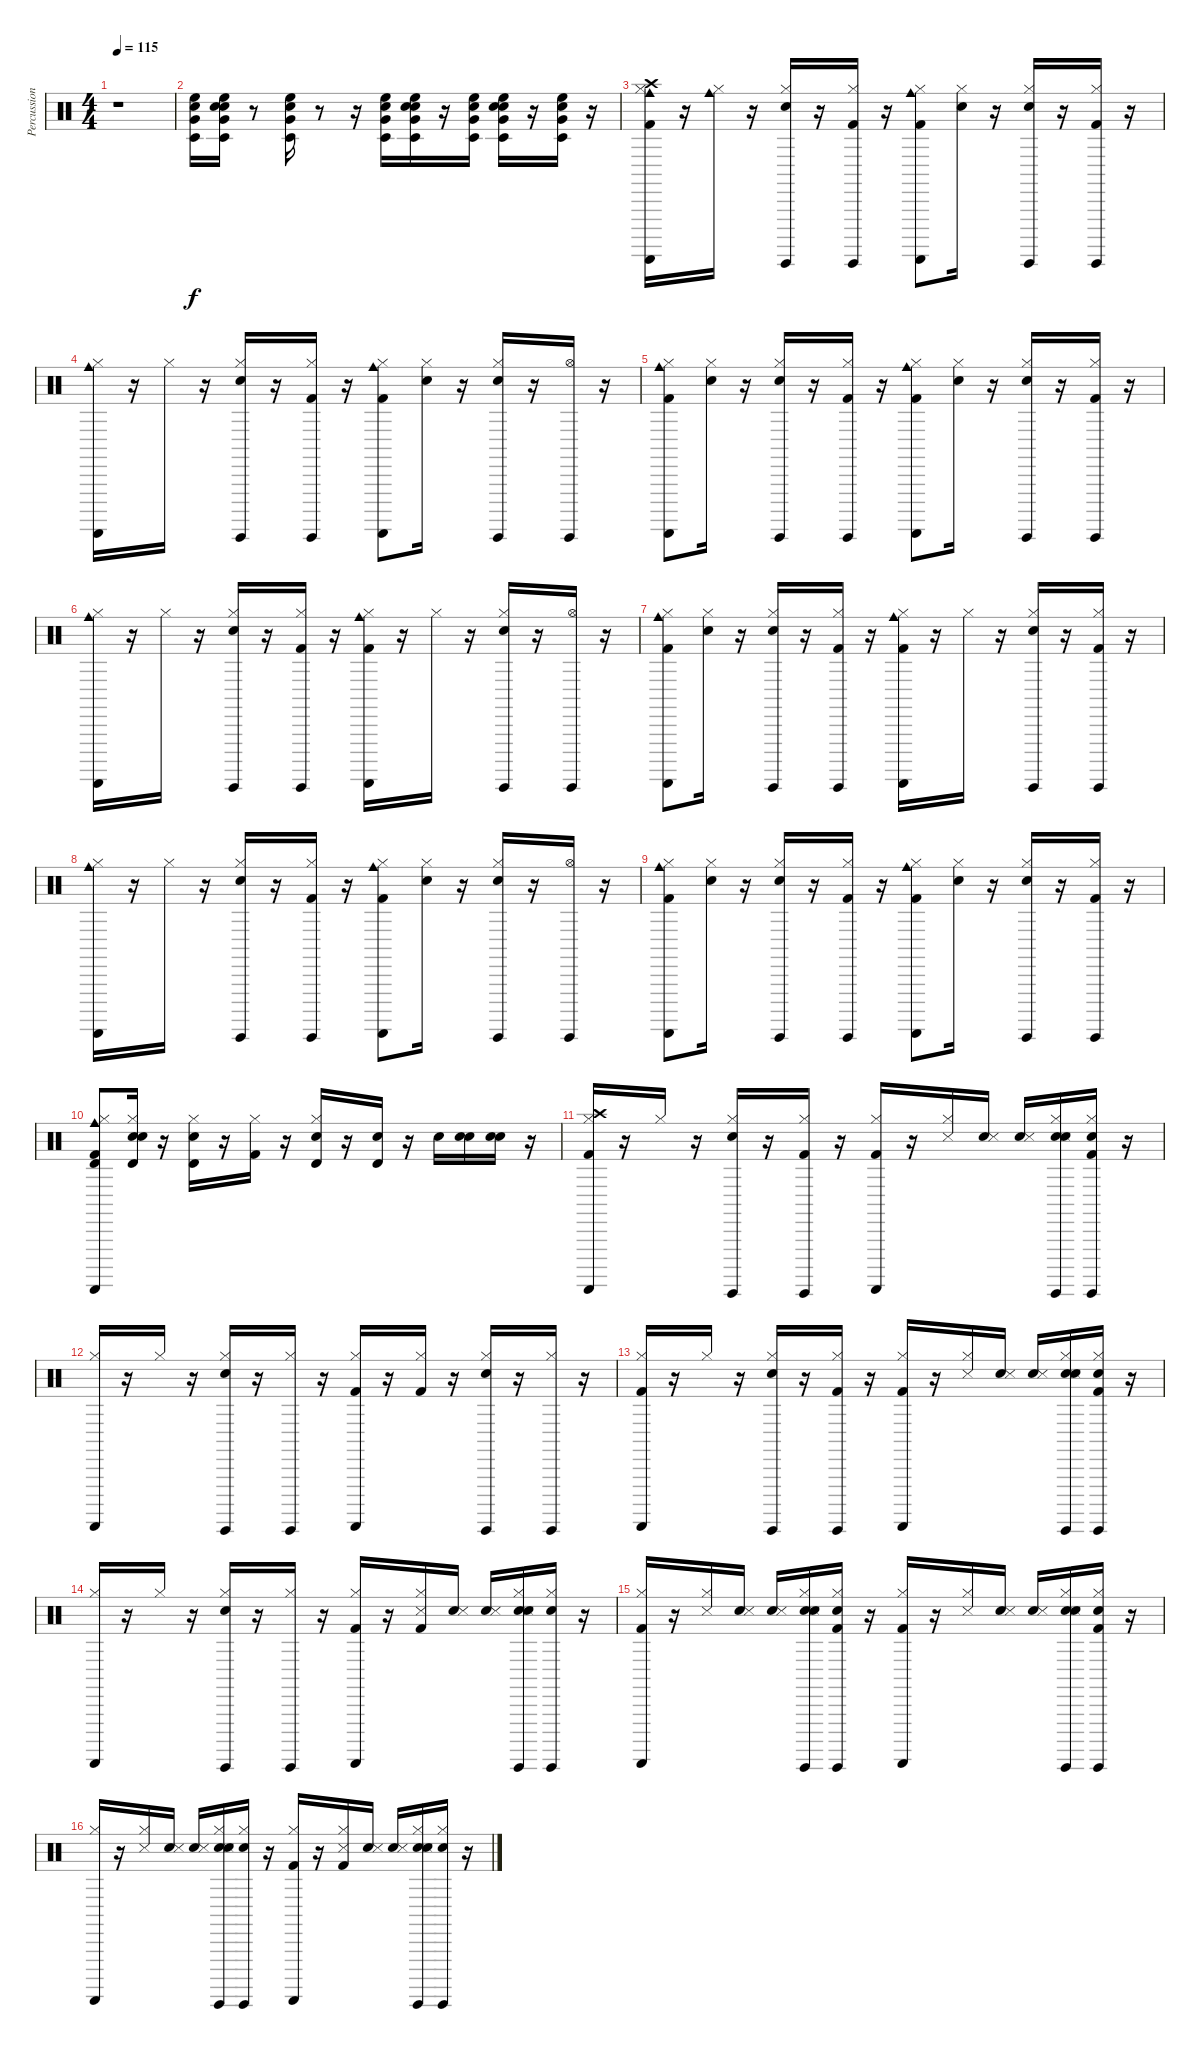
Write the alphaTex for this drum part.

\track ("Percussion" "Percussion") {instrument percussion}
\staff {score}
\articulation defaults
\ts (4 4)
\tempo 115
\clef neutral
\ks c
r.1{dy f} |
("Very Low Tom (hit)" "Timbale low (hit)" "Electric Snare (hit)" "High Floor Tom (hit)").16 ("Snare (hit)" "Very Low Tom (hit)" "Timbale low (hit)" "Electric Snare (hit)" "High Floor Tom (hit)").16 r.8 ("Very Low Tom (hit)" "Timbale low (hit)" "High Floor Tom (hit)" "Electric Snare (hit)").16 r.8 r.16 ("Very Low Tom (hit)" "Electric Snare (hit)" "Timbale low (hit)" "High Floor Tom (hit)").16 ("Snare (hit)" "Timbale low (hit)" "Electric Snare (hit)" "High Floor Tom (hit)" "Very Low Tom (hit)").16 r.16 ("High Floor Tom (hit)" "Timbale low (hit)" "Electric Snare (hit)" "Very Low Tom (hit)").16 ("Snare (hit)" "Very Low Tom (hit)" "High Floor Tom (hit)" "Electric Snare (hit)" "Timbale low (hit)").16 r.16 ("Very Low Tom (hit)" "Electric Snare (hit)" "High Floor Tom (hit)" "Timbale low (hit)").16 r.16 |
("Kick (hit) 2" "Hi-Hat (closed)" "Crash high (hit)" "Guiro (scrap-return)" "Cowbell medium (hit)").16 r.16 ("Cowbell medium (hit)" "Hi-Hat (closed)").16 r.16 ("Guiro (hit)" "Snare (hit) 2" "Hi-Hat (closed)").16 r.16 ("Hi-Hat (closed)" "Kick (hit) 2" "Guiro (hit)").16 r.16 ("Guiro (scrap-return)" "Kick (hit) 2" "Hi-Hat (closed)" "Cowbell medium (hit)").8 ("Snare (hit)" "Hi-Hat (closed)").16 r.16 ("Hi-Hat (closed)" "Guiro (hit)" "Snare (hit) 2").16 r.16 ("Kick (hit) 2" "Guiro (hit)" "Hi-Hat (closed)").16 r.16 |
("Cowbell medium (hit)" "Guiro (scrap-return)" "Hi-Hat (closed)").16 r.16 "Hi-Hat (closed)".16 r.16 ("Guiro (hit)" "Snare (hit) 2" "Hi-Hat (closed)").16 r.16 ("Hi-Hat (closed)" "Kick (hit) 2" "Guiro (hit)").16 r.16 ("Guiro (scrap-return)" "Kick (hit) 2" "Hi-Hat (closed)" "Cowbell medium (hit)").8 ("Snare (hit)" "Hi-Hat (closed)").16 r.16 ("Guiro (hit)" "Snare (hit) 2" "Hi-Hat (closed)").16 r.16 ("Hi-Hat (open)" "Guiro (hit)").16 r.16 |
("Guiro (scrap-return)" "Kick (hit) 2" "Hi-Hat (closed)" "Cowbell medium (hit)").8 ("Snare (hit)" "Hi-Hat (closed)").16 r.16 ("Guiro (hit)" "Snare (hit) 2" "Hi-Hat (closed)").16 r.16 ("Hi-Hat (closed)" "Kick (hit) 2" "Guiro (hit)").16 r.16 ("Guiro (scrap-return)" "Kick (hit) 2" "Hi-Hat (closed)" "Cowbell medium (hit)").8 ("Snare (hit)" "Hi-Hat (closed)").16 r.16 ("Guiro (hit)" "Snare (hit) 2" "Hi-Hat (closed)").16 r.16 ("Guiro (hit)" "Hi-Hat (closed)" "Kick (hit) 2").16 r.16 |
("Guiro (scrap-return)" "Hi-Hat (closed)" "Cowbell medium (hit)").16 r.16 "Hi-Hat (closed)".16 r.16 ("Guiro (hit)" "Snare (hit) 2" "Hi-Hat (closed)").16 r.16 ("Hi-Hat (closed)" "Kick (hit) 2" "Guiro (hit)").16 r.16 ("Cowbell medium (hit)" "Guiro (scrap-return)" "Kick (hit) 2" "Hi-Hat (closed)").16 r.16 "Hi-Hat (closed)".16 r.16 ("Guiro (hit)" "Snare (hit) 2" "Hi-Hat (closed)").16 r.16 ("Hi-Hat (open)" "Guiro (hit)").16 r.16 |
("Guiro (scrap-return)" "Kick (hit) 2" "Hi-Hat (closed)" "Cowbell medium (hit)").8 ("Snare (hit)" "Hi-Hat (closed)").16 r.16 ("Guiro (hit)" "Snare (hit) 2" "Hi-Hat (closed)").16 r.16 ("Hi-Hat (closed)" "Kick (hit) 2" "Guiro (hit)").16 r.16 ("Cowbell medium (hit)" "Guiro (scrap-return)" "Kick (hit) 2" "Hi-Hat (closed)").16 r.16 "Hi-Hat (closed)".16 r.16 ("Guiro (hit)" "Snare (hit) 2" "Hi-Hat (closed)").16 r.16 ("Guiro (hit)" "Hi-Hat (closed)" "Kick (hit) 2").16 r.16 |
("Cowbell medium (hit)" "Guiro (scrap-return)" "Hi-Hat (closed)").16 r.16 "Hi-Hat (closed)".16 r.16 ("Guiro (hit)" "Snare (hit) 2" "Hi-Hat (closed)").16 r.16 ("Hi-Hat (closed)" "Kick (hit) 2" "Guiro (hit)").16 r.16 ("Guiro (scrap-return)" "Kick (hit) 2" "Hi-Hat (closed)" "Cowbell medium (hit)").8 ("Snare (hit)" "Hi-Hat (closed)").16 r.16 ("Guiro (hit)" "Snare (hit) 2" "Hi-Hat (closed)").16 r.16 ("Hi-Hat (open)" "Guiro (hit)").16 r.16 |
("Guiro (scrap-return)" "Kick (hit) 2" "Hi-Hat (closed)" "Cowbell medium (hit)").8 ("Snare (hit)" "Hi-Hat (closed)").16 r.16 ("Guiro (hit)" "Snare (hit) 2" "Hi-Hat (closed)").16 r.16 ("Hi-Hat (closed)" "Kick (hit) 2" "Guiro (hit)").16 r.16 ("Guiro (scrap-return)" "Kick (hit) 2" "Hi-Hat (closed)" "Cowbell medium (hit)").8 ("Snare (hit)" "Hi-Hat (closed)").16 r.16 ("Guiro (hit)" "Snare (hit) 2" "Hi-Hat (closed)").16 r.16 ("Guiro (hit)" "Hi-Hat (closed)" "Kick (hit) 2").16 r.16 |
("Hi-Hat (closed)" "Guiro (scrap-return)" "Kick (hit) 2" "Timbale high (hit)" "Cowbell medium (hit)").8 ("Snare (hit)" "Hi-Hat (closed)" "Electric Snare (hit)" "Timbale high (hit)").16 r.16 ("Hi-Hat (closed)" "Electric Snare (hit)" "Timbale high (hit)").16 r.16 ("Hi-Hat (closed)" "Kick (hit) 2").16 r.16 ("Hi-Hat (closed)" "Timbale high (hit)" "Electric Snare (hit)").16 r.16 ("Electric Snare (hit)" "Timbale high (hit)").16 r.16 "Electric Snare (hit)".16 ("Snare (hit)" "Electric Snare (hit)").16 ("Snare (hit)" "Electric Snare (hit)").16 r.16 |
("Guiro (scrap-return)" "Hi-Hat (closed)" "Crash high (hit)" "Kick (hit) 2").16 r.16 "Hi-Hat (closed)".16 r.16 ("Guiro (hit)" "Hi-Hat (closed)" "Snare (hit) 2").16 r.16 ("Guiro (hit)" "Hi-Hat (closed)" "Kick (hit) 2").16 r.16 ("Guiro (scrap-return)" "Hi-Hat (closed)" "Kick (hit) 2").16 r.16 ("Hi-Hat (closed)" "Snare (side stick) 3").16 ("Snare (hit)" "Snare (side stick) 3").16 ("Snare (hit)" "Snare (side stick) 3").16 ("Snare (hit)" "Snare (side stick) 3" "Guiro (hit)" "Hi-Hat (closed)" "Snare (hit) 2").16 ("Snare (hit)" "Guiro (hit)" "Hi-Hat (closed)" "Kick (hit) 2").16 r.16 |
("Guiro (scrap-return)" "Hi-Hat (closed)").16 r.16 "Hi-Hat (closed)".16 r.16 ("Snare (hit) 2" "Guiro (hit)" "Hi-Hat (closed)").16 r.16 ("Guiro (hit)" "Hi-Hat (closed)").16 r.16 ("Guiro (scrap-return)" "Hi-Hat (closed)" "Kick (hit) 2").16 r.16 ("Hi-Hat (closed)" "Kick (hit) 2").16 r.16 ("Guiro (hit)" "Hi-Hat (closed)" "Snare (hit) 2").16 r.16 ("Guiro (hit)" "Hi-Hat (closed)").16 r.16 |
("Guiro (scrap-return)" "Hi-Hat (closed)" "Kick (hit) 2").16 r.16 "Hi-Hat (closed)".16 r.16 ("Guiro (hit)" "Hi-Hat (closed)" "Snare (hit) 2").16 r.16 ("Guiro (hit)" "Hi-Hat (closed)" "Kick (hit) 2").16 r.16 ("Guiro (scrap-return)" "Hi-Hat (closed)" "Kick (hit) 2").16 r.16 ("Hi-Hat (closed)" "Snare (side stick) 3").16 ("Snare (hit)" "Snare (side stick) 3").16 ("Snare (hit)" "Snare (side stick) 3").16 ("Snare (hit)" "Guiro (hit)" "Snare (side stick) 3" "Hi-Hat (closed)" "Snare (hit) 2").16 ("Snare (hit)" "Guiro (hit)" "Hi-Hat (closed)" "Kick (hit) 2").16 r.16 |
("Guiro (scrap-return)" "Hi-Hat (closed)").16 r.16 "Hi-Hat (closed)".16 r.16 ("Guiro (hit)" "Hi-Hat (closed)" "Snare (hit) 2").16 r.16 ("Guiro (hit)" "Hi-Hat (closed)").16 r.16 ("Guiro (scrap-return)" "Hi-Hat (closed)" "Kick (hit) 2").16 r.16 ("Hi-Hat (closed)" "Kick (hit) 2" "Snare (side stick) 3").16 ("Snare (hit)" "Snare (side stick) 3").16 ("Snare (hit)" "Snare (side stick) 3").16 ("Snare (hit)" "Snare (hit) 2" "Guiro (hit)" "Hi-Hat (closed)" "Snare (side stick) 3").16 ("Snare (hit)" "Guiro (hit)" "Hi-Hat (closed)").16 r.16 |
("Guiro (scrap-return)" "Hi-Hat (closed)" "Kick (hit) 2").16 r.16 ("Hi-Hat (closed)" "Snare (side stick) 3").16 ("Snare (hit)" "Snare (side stick) 3").16 ("Snare (hit)" "Snare (side stick) 3").16 ("Snare (hit)" "Guiro (hit)" "Snare (side stick) 3" "Hi-Hat (closed)" "Snare (hit) 2").16 ("Snare (hit)" "Guiro (hit)" "Hi-Hat (closed)" "Kick (hit) 2").16 r.16 ("Guiro (scrap-return)" "Hi-Hat (closed)" "Kick (hit) 2").16 r.16 ("Snare (side stick) 3" "Hi-Hat (closed)").16 ("Snare (hit)" "Snare (side stick) 3").16 ("Snare (hit)" "Snare (side stick) 3").16 ("Snare (hit)" "Snare (side stick) 3" "Guiro (hit)" "Hi-Hat (closed)" "Snare (hit) 2").16 ("Snare (hit)" "Guiro (hit)" "Hi-Hat (closed)" "Kick (hit) 2").16 r.16 |
("Guiro (scrap-return)" "Hi-Hat (closed)").16 r.16 ("Snare (side stick) 3" "Hi-Hat (closed)").16 ("Snare (hit)" "Snare (side stick) 3").16 ("Snare (hit)" "Snare (side stick) 3").16 ("Snare (hit)" "Guiro (hit)" "Hi-Hat (closed)" "Snare (side stick) 3" "Snare (hit) 2").16 ("Snare (hit)" "Guiro (hit)" "Hi-Hat (closed)").16 r.16 ("Kick (hit) 2" "Guiro (scrap-return)" "Hi-Hat (closed)").16 r.16 ("Snare (side stick) 3" "Hi-Hat (closed)" "Kick (hit) 2").16 ("Snare (hit)" "Snare (side stick) 3").16 ("Snare (hit)" "Snare (side stick) 3").16 ("Snare (hit)" "Guiro (hit)" "Hi-Hat (closed)" "Snare (side stick) 3" "Snare (hit) 2").16 ("Snare (hit)" "Guiro (hit)" "Hi-Hat (closed)").16 r.16
